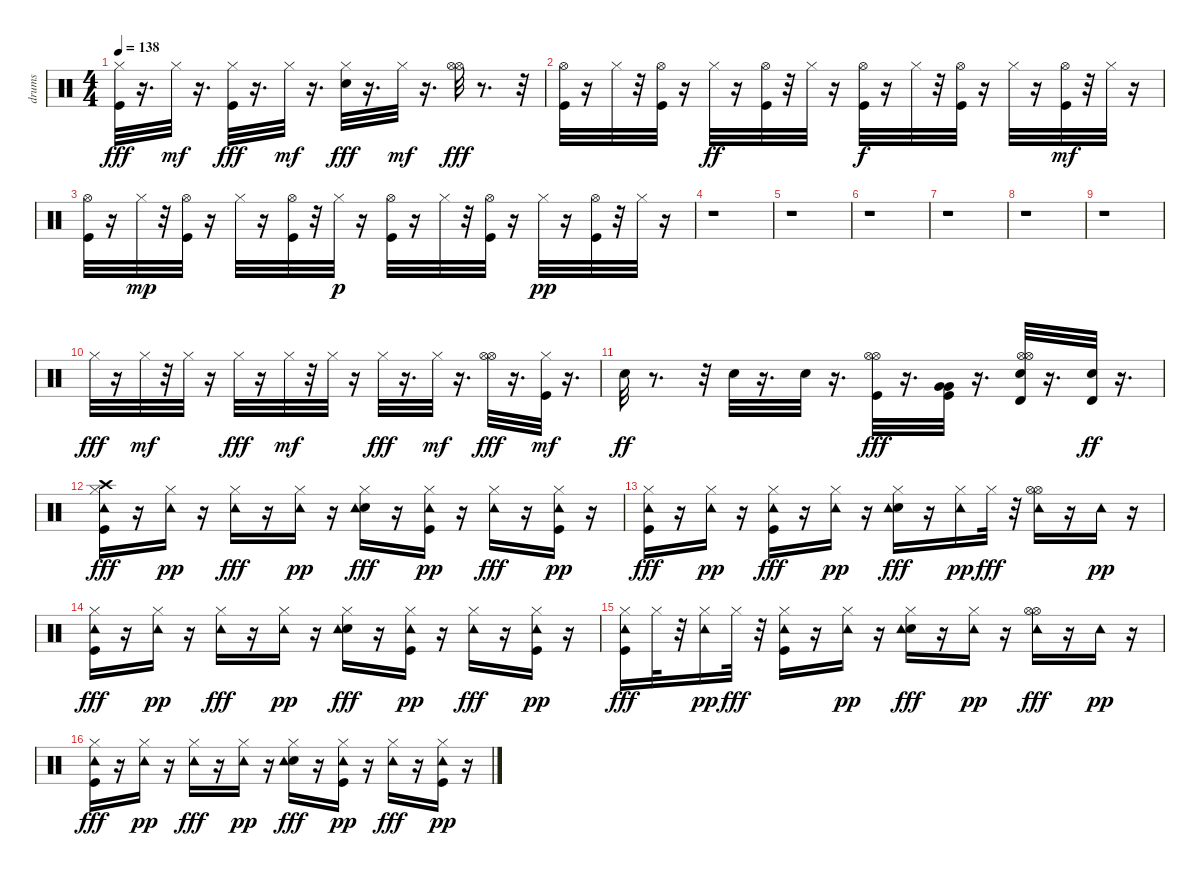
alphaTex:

\track ("drums" "drums") {instrument percussion}
\staff {score}
\articulation defaults
\ts (4 4)
\tempo 138
\clef neutral
\ks c
("Kick (hit)" "Hi-Hat (closed)").32{dy fff} r.16{d} "Hi-Hat (closed)".32{dy mf} r.16{d} ("Kick (hit)" "Hi-Hat (closed)").32{dy fff} r.16{d} "Hi-Hat (closed)".32{dy mf} r.16{d} ("Metronome (bell)" "Hi-Hat (closed)").32{dy fff} r.16{d} "Hi-Hat (closed)".32{dy mf} r.16{d} ("Hi-Hat (open)" "Hi-Hat (open)").32{dy fff} r.8{d} r.32 |
("Kick (hit)" "Hi-Hat (open)").32 r.16 "Hi-Hat (closed)".32 r.32 ("Kick (hit)" "Hi-Hat (open)").32 r.16 "Hi-Hat (closed)".32{dy ff} r.16 ("Kick (hit)" "Hi-Hat (open)").32 r.32 "Hi-Hat (closed)".32 r.16 ("Kick (hit)" "Hi-Hat (open)").32{dy f} r.16 "Hi-Hat (closed)".32 r.32 ("Kick (hit)" "Hi-Hat (open)").32 r.16 "Hi-Hat (closed)".32 r.16 ("Kick (hit)" "Hi-Hat (open)").32{dy mf} r.32 "Hi-Hat (closed)".32 r.16 |
("Kick (hit)" "Hi-Hat (open)").32 r.16 "Hi-Hat (closed)".32{dy mp} r.32 ("Kick (hit)" "Hi-Hat (open)").32 r.16 "Hi-Hat (closed)".32 r.16 ("Kick (hit)" "Hi-Hat (open)").32 r.32 "Hi-Hat (closed)".32{dy p} r.16 ("Kick (hit)" "Hi-Hat (open)").32 r.16 "Hi-Hat (closed)".32 r.32 ("Kick (hit)" "Hi-Hat (open)").32 r.16 "Hi-Hat (closed)".32{dy pp} r.16 ("Kick (hit)" "Hi-Hat (open)").32 r.32 "Hi-Hat (closed)".32 r.16 |
r.1 |
r.1 |
r.1 |
r.1 |
r.1 |
r.1 |
"Hi-Hat (closed)".32{dy fff} r.16 "Hi-Hat (closed)".32{dy mf} r.32 "Hi-Hat (closed)".32 r.16 "Hi-Hat (closed)".32{dy fff} r.16 "Hi-Hat (closed)".32{dy mf} r.32 "Hi-Hat (closed)".32 r.16 "Hi-Hat (closed)".32{dy fff} r.16{d} "Hi-Hat (closed)".32{dy mf} r.16{d} ("Hi-Hat (open)" "Hi-Hat (open)").32{dy fff} r.16{d} ("Kick (hit)" "Hi-Hat (closed)").32{dy mf} r.16{d} |
"Metronome (bell)".32{dy ff} r.8{d} r.32 "Metronome (bell)".32 r.16{d} "Metronome (bell)".32 r.16{d} ("Hi-Hat (open)" "Hi-Hat (open)" "Kick (hit)").32{dy fff} r.16{d} ("Very Low Tom (hit)" "Very Low Tom (hit)" "Kick (hit)").32 r.16{d} ("Timbale high (hit)" "Metronome (bell)" "Hi-Hat (open)" "Hi-Hat (open)").32 r.16{d} ("Timbale high (hit)" "Metronome (bell)").32{dy ff} r.16{d} |
("Crash high (hit)" "Hi-Hat (closed)" "Kick (hit)" "Tambourine (hit)").16{dy fff} r.16 ("Hi-Hat (closed)" "Tambourine (hit)").16{dy pp} r.16 ("Hi-Hat (closed)" "Tambourine (hit)").16{dy fff} r.16 ("Hi-Hat (closed)" "Tambourine (hit)").16{dy pp} r.16 ("Metronome (bell)" "Hi-Hat (closed)" "Tambourine (hit)").16{dy fff} r.16 ("Hi-Hat (closed)" "Kick (hit)" "Tambourine (hit)").16{dy pp} r.16 ("Hi-Hat (closed)" "Tambourine (hit)").16{dy fff} r.16 ("Hi-Hat (closed)" "Kick (hit)" "Tambourine (hit)").16{dy pp} r.16 |
("Hi-Hat (closed)" "Kick (hit)" "Tambourine (hit)").16{dy fff} r.16 ("Hi-Hat (closed)" "Tambourine (hit)").16{dy pp} r.16 ("Hi-Hat (closed)" "Kick (hit)" "Tambourine (hit)").16{dy fff} r.16 ("Hi-Hat (closed)" "Tambourine (hit)").16{dy pp} r.16 ("Metronome (bell)" "Hi-Hat (closed)" "Tambourine (hit)").16{dy fff} r.16 ("Hi-Hat (closed)" "Tambourine (hit)").16{dy pp} "Hi-Hat (closed)".32{dy fff} r.32 ("Hi-Hat (open)" "Hi-Hat (open)" "Tambourine (hit)").16 r.16 "Tambourine (hit)".16{dy pp} r.16 |
("Hi-Hat (closed)" "Kick (hit)" "Tambourine (hit)").16{dy fff} r.16 ("Hi-Hat (closed)" "Tambourine (hit)").16{dy pp} r.16 ("Hi-Hat (closed)" "Tambourine (hit)").16{dy fff} r.16 ("Hi-Hat (closed)" "Tambourine (hit)").16{dy pp} r.16 ("Metronome (bell)" "Hi-Hat (closed)" "Tambourine (hit)").16{dy fff} r.16 ("Hi-Hat (closed)" "Kick (hit)" "Tambourine (hit)").16{dy pp} r.16 ("Hi-Hat (closed)" "Tambourine (hit)").16{dy fff} r.16 ("Hi-Hat (closed)" "Kick (hit)" "Tambourine (hit)").16{dy pp} r.16 |
("Hi-Hat (closed)" "Kick (hit)" "Tambourine (hit)").16{dy fff} "Hi-Hat (closed)".32 r.32 ("Hi-Hat (closed)" "Tambourine (hit)").16{dy pp} "Hi-Hat (closed)".32{dy fff} r.32 ("Hi-Hat (closed)" "Kick (hit)" "Tambourine (hit)").16 r.16 ("Hi-Hat (closed)" "Tambourine (hit)").16{dy pp} r.16 ("Metronome (bell)" "Hi-Hat (closed)" "Tambourine (hit)").16{dy fff} r.16 ("Hi-Hat (closed)" "Tambourine (hit)").16{dy pp} r.16 ("Hi-Hat (open)" "Hi-Hat (open)" "Tambourine (hit)").16{dy fff} r.16 "Tambourine (hit)".16{dy pp} r.16 |
("Hi-Hat (closed)" "Kick (hit)" "Tambourine (hit)").16{dy fff} r.16 ("Hi-Hat (closed)" "Tambourine (hit)").16{dy pp} r.16 ("Hi-Hat (closed)" "Tambourine (hit)").16{dy fff} r.16 ("Hi-Hat (closed)" "Tambourine (hit)").16{dy pp} r.16 ("Metronome (bell)" "Hi-Hat (closed)" "Tambourine (hit)").16{dy fff} r.16 ("Hi-Hat (closed)" "Kick (hit)" "Tambourine (hit)").16{dy pp} r.16 ("Hi-Hat (closed)" "Tambourine (hit)").16{dy fff} r.16 ("Hi-Hat (closed)" "Kick (hit)" "Tambourine (hit)").16{dy pp} r.16
